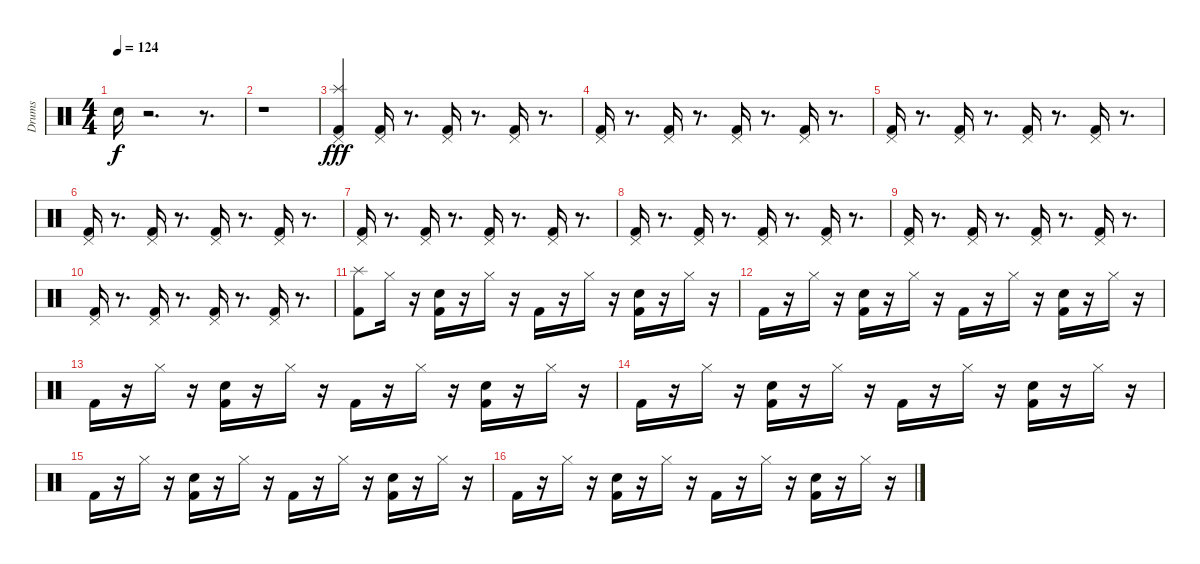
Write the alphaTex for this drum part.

\track ("Drums" "Drums") {instrument percussion}
\staff {score}
\articulation defaults
\ts (4 4)
\tempo 124
\clef neutral
\ks c "Snare (hit)"{t}.16{dy f}
r.2{d} r.8{d} |
r.1 |
("Pedal Hi-Hat (hit)" "Splash (hit)" "Kick (hit) 2").4{dy fff} ("Pedal Hi-Hat (hit)" "Kick (hit) 2").16 r.8{d} ("Pedal Hi-Hat (hit)" "Kick (hit) 2").16 r.8{d} ("Pedal Hi-Hat (hit)" "Kick (hit) 2").16 r.8{d} |
("Pedal Hi-Hat (hit)" "Kick (hit) 2").16 r.8{d} ("Pedal Hi-Hat (hit)" "Kick (hit) 2").16 r.8{d} ("Pedal Hi-Hat (hit)" "Kick (hit) 2").16 r.8{d} ("Pedal Hi-Hat (hit)" "Kick (hit) 2").16 r.8{d} |
("Pedal Hi-Hat (hit)" "Kick (hit) 2").16 r.8{d} ("Pedal Hi-Hat (hit)" "Kick (hit) 2").16 r.8{d} ("Pedal Hi-Hat (hit)" "Kick (hit) 2").16 r.8{d} ("Pedal Hi-Hat (hit)" "Kick (hit) 2").16 r.8{d} |
("Pedal Hi-Hat (hit)" "Kick (hit) 2").16 r.8{d} ("Pedal Hi-Hat (hit)" "Kick (hit) 2").16 r.8{d} ("Pedal Hi-Hat (hit)" "Kick (hit) 2").16 r.8{d} ("Pedal Hi-Hat (hit)" "Kick (hit) 2").16 r.8{d} |
("Pedal Hi-Hat (hit)" "Kick (hit) 2").16 r.8{d} ("Pedal Hi-Hat (hit)" "Kick (hit) 2").16 r.8{d} ("Pedal Hi-Hat (hit)" "Kick (hit) 2").16 r.8{d} ("Pedal Hi-Hat (hit)" "Kick (hit) 2").16 r.8{d} |
("Pedal Hi-Hat (hit)" "Kick (hit) 2").16 r.8{d} ("Pedal Hi-Hat (hit)" "Kick (hit) 2").16 r.8{d} ("Pedal Hi-Hat (hit)" "Kick (hit) 2").16 r.8{d} ("Pedal Hi-Hat (hit)" "Kick (hit) 2").16 r.8{d} |
("Pedal Hi-Hat (hit)" "Kick (hit) 2").16 r.8{d} ("Pedal Hi-Hat (hit)" "Kick (hit) 2").16 r.8{d} ("Pedal Hi-Hat (hit)" "Kick (hit) 2").16 r.8{d} ("Pedal Hi-Hat (hit)" "Kick (hit) 2").16 r.8{d} |
("Pedal Hi-Hat (hit)" "Kick (hit) 2").16 r.8{d} ("Pedal Hi-Hat (hit)" "Kick (hit) 2").16 r.8{d} ("Pedal Hi-Hat (hit)" "Kick (hit) 2").16 r.8{d} ("Pedal Hi-Hat (hit)" "Kick (hit) 2").16 r.8{d} |
("Splash (hit)" "Kick (hit) 2").8 "Hi-Hat (closed)".16 r.16 ("Electric Snare (hit)" "Kick (hit) 2").16 r.16 "Hi-Hat (closed)".16 r.16 "Kick (hit) 2".16 r.16 "Hi-Hat (closed)".16 r.16 ("Electric Snare (hit)" "Kick (hit) 2").16 r.16 "Hi-Hat (closed)".16 r.16 |
"Kick (hit) 2".16 r.16 "Hi-Hat (closed)".16 r.16 ("Electric Snare (hit)" "Kick (hit) 2").16 r.16 "Hi-Hat (closed)".16 r.16 "Kick (hit) 2".16 r.16 "Hi-Hat (closed)".16 r.16 ("Electric Snare (hit)" "Kick (hit) 2").16 r.16 "Hi-Hat (closed)".16 r.16 |
"Kick (hit) 2".16 r.16 "Hi-Hat (closed)".16 r.16 ("Electric Snare (hit)" "Kick (hit) 2").16 r.16 "Hi-Hat (closed)".16 r.16 "Kick (hit) 2".16 r.16 "Hi-Hat (closed)".16 r.16 ("Electric Snare (hit)" "Kick (hit) 2").16 r.16 "Hi-Hat (closed)".16 r.16 |
"Kick (hit) 2".16 r.16 "Hi-Hat (closed)".16 r.16 ("Electric Snare (hit)" "Kick (hit) 2").16 r.16 "Hi-Hat (closed)".16 r.16 "Kick (hit) 2".16 r.16 "Hi-Hat (closed)".16 r.16 ("Electric Snare (hit)" "Kick (hit) 2").16 r.16 "Hi-Hat (closed)".16 r.16 |
"Kick (hit) 2".16 r.16 "Hi-Hat (closed)".16 r.16 ("Electric Snare (hit)" "Kick (hit) 2").16 r.16 "Hi-Hat (closed)".16 r.16 "Kick (hit) 2".16 r.16 "Hi-Hat (closed)".16 r.16 ("Electric Snare (hit)" "Kick (hit) 2").16 r.16 "Hi-Hat (closed)".16 r.16 |
"Kick (hit) 2".16 r.16 "Hi-Hat (closed)".16 r.16 ("Electric Snare (hit)" "Kick (hit) 2").16 r.16 "Hi-Hat (closed)".16 r.16 "Kick (hit) 2".16 r.16 "Hi-Hat (closed)".16 r.16 ("Electric Snare (hit)" "Kick (hit) 2").16 r.16 "Hi-Hat (closed)".16 r.16
